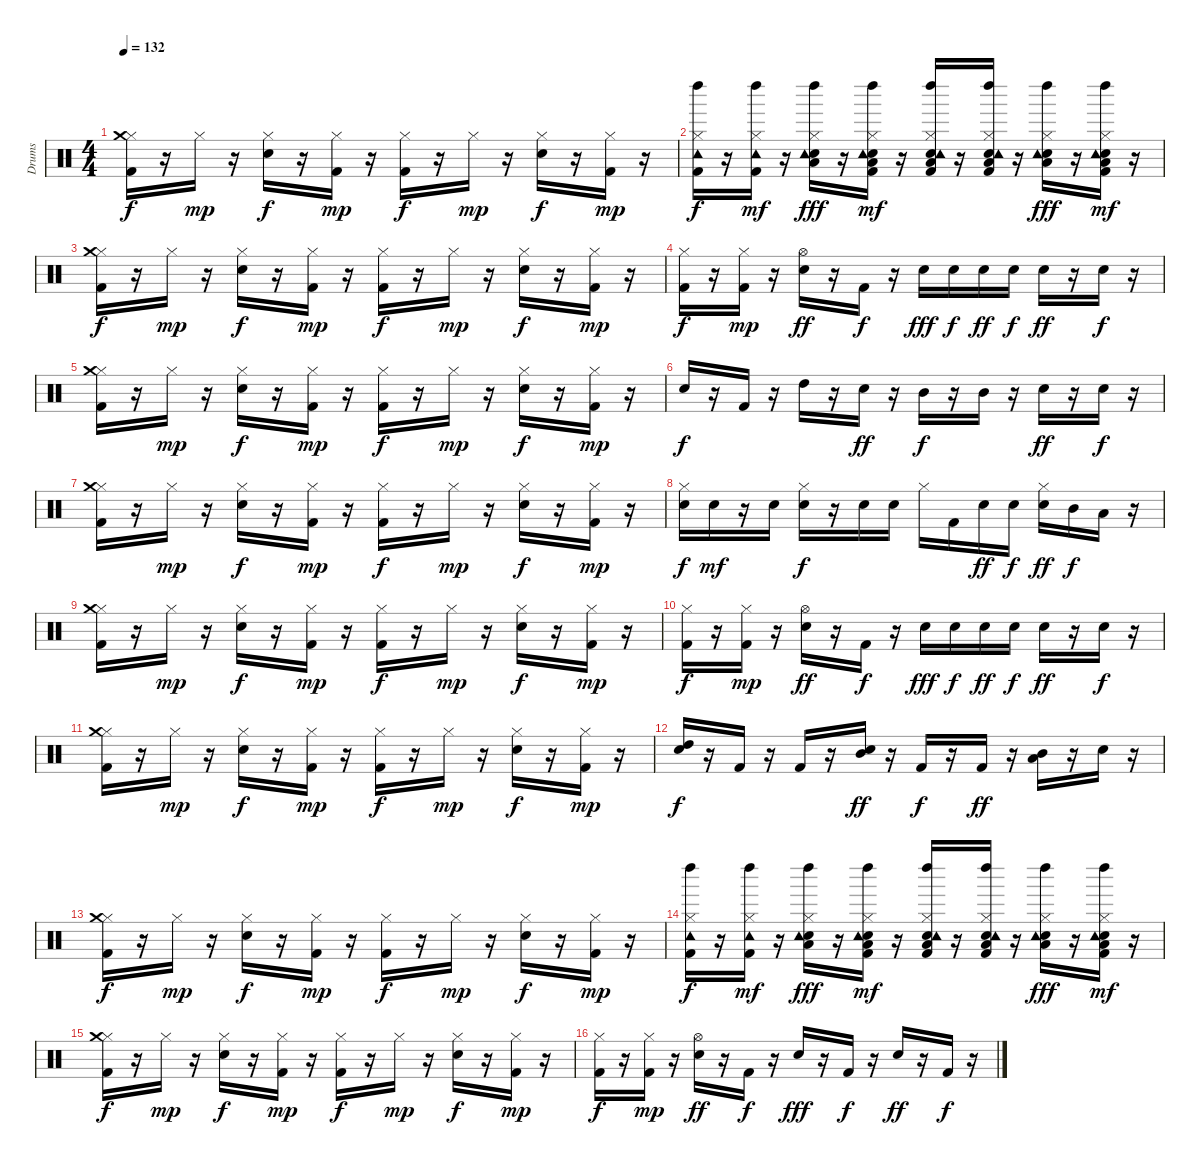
\track ("Drums" "Drums") {instrument percussion}
\staff {score}
\articulation defaults
\ts (4 4)
\tempo 132
\clef neutral
\ks c
("Kick (hit) 2" "Hi-Hat (closed)" "Crash medium (hit)").16{dy f} r.16 "Hi-Hat (closed)".16{dy mp} r.16 ("Snare (hit) 2" "Hi-Hat (closed)").16{dy f} r.16 ("Kick (hit) 2" "Hi-Hat (closed)").16{dy mp} r.16 ("Kick (hit) 2" "Hi-Hat (closed)").16{dy f} r.16 "Hi-Hat (closed)".16{dy mp} r.16 ("Snare (hit) 2" "Hi-Hat (closed)").16{dy f} r.16 ("Kick (hit) 2" "Hi-Hat (closed)").16{dy mp} r.16 |
("Kick (hit) 2" "Hi-Hat (closed)" "Tambourine (hit)" "Left Maraca (hit)").16{dy f} r.16 ("Kick (hit) 2" "Hi-Hat (closed)" "Tambourine (hit)" "Left Maraca (hit)").16{dy mf} r.16 ("Snare (hit) 2" "Hi-Hat (closed)" "Low Floor Tom (hit)" "Tambourine (hit)" "Left Maraca (hit)").16{dy fff} r.16 ("Kick (hit) 2" "Snare (hit) 2" "Hi-Hat (closed)" "Low Floor Tom (hit)" "Tambourine (hit)" "Left Maraca (hit)").16{dy mf} r.16 ("Kick (hit) 2" "Snare (hit) 2" "Hi-Hat (closed)" "Low Floor Tom (hit)" "Tambourine (hit)" "Left Maraca (hit)").16 r.16 ("Kick (hit) 2" "Snare (hit) 2" "Hi-Hat (closed)" "Low Floor Tom (hit)" "Tambourine (hit)" "Left Maraca (hit)").16 r.16 ("Snare (hit) 2" "Hi-Hat (closed)" "Low Floor Tom (hit)" "Tambourine (hit)" "Left Maraca (hit)").16{dy fff} r.16 ("Kick (hit) 2" "Snare (hit) 2" "Hi-Hat (closed)" "Low Floor Tom (hit)" "Tambourine (hit)" "Left Maraca (hit)").16{dy mf} r.16 |
("Kick (hit) 2" "Hi-Hat (closed)" "Crash medium (hit)").16{dy f} r.16 "Hi-Hat (closed)".16{dy mp} r.16 ("Snare (hit) 2" "Hi-Hat (closed)").16{dy f} r.16 ("Kick (hit) 2" "Hi-Hat (closed)").16{dy mp} r.16 ("Kick (hit) 2" "Hi-Hat (closed)").16{dy f} r.16 "Hi-Hat (closed)".16{dy mp} r.16 ("Snare (hit) 2" "Hi-Hat (closed)").16{dy f} r.16 ("Kick (hit) 2" "Hi-Hat (closed)").16{dy mp} r.16 |
("Kick (hit) 2" "Hi-Hat (closed)").16{dy f} r.16 ("Kick (hit) 2" "Hi-Hat (closed)").16{dy mp} r.16 ("Snare (hit) 2" "Hi-Hat (open)").16{dy ff} r.16 "Kick (hit) 2".16{dy f} r.16 "Snare (hit) 2".16{dy fff} "Snare (hit) 2".16{dy f} "Snare (hit) 2".16{dy ff} "Snare (hit) 2".16{dy f} "Snare (hit) 2".16{dy ff} r.16 "Snare (hit) 2".16{dy f} r.16 |
("Kick (hit) 2" "Hi-Hat (closed)" "Crash medium (hit)").16 r.16 "Hi-Hat (closed)".16{dy mp} r.16 ("Snare (hit) 2" "Hi-Hat (closed)").16{dy f} r.16 ("Kick (hit) 2" "Hi-Hat (closed)").16{dy mp} r.16 ("Kick (hit) 2" "Hi-Hat (closed)").16{dy f} r.16 "Hi-Hat (closed)".16{dy mp} r.16 ("Snare (hit) 2" "Hi-Hat (closed)").16{dy f} r.16 ("Kick (hit) 2" "Hi-Hat (closed)").16{dy mp} r.16 |
"Snare (hit) 2".16{dy f} r.16 "Kick (hit) 2".16 r.16 "High Tom (hit)".16 r.16 "Snare (hit) 2".16{dy ff} r.16 "Mid Tom (hit)".16{dy f} r.16 "Mid Tom (hit)".16 r.16 "Snare (hit) 2".16{dy ff} r.16 "Snare (hit) 2".16{dy f} r.16 |
("Kick (hit) 2" "Hi-Hat (closed)" "Crash medium (hit)").16 r.16 "Hi-Hat (closed)".16{dy mp} r.16 ("Snare (hit) 2" "Hi-Hat (closed)").16{dy f} r.16 ("Kick (hit) 2" "Hi-Hat (closed)").16{dy mp} r.16 ("Kick (hit) 2" "Hi-Hat (closed)").16{dy f} r.16 "Hi-Hat (closed)".16{dy mp} r.16 ("Snare (hit) 2" "Hi-Hat (closed)").16{dy f} r.16 ("Kick (hit) 2" "Hi-Hat (closed)").16{dy mp} r.16 |
("Snare (hit) 2" "Hi-Hat (closed)").16{dy f} "Snare (hit) 2".16{dy mf} r.16 "Snare (hit) 2".16 ("Snare (hit) 2" "Hi-Hat (closed)").16{dy f} r.16 "Snare (hit) 2".16 "Snare (hit) 2".16 "Hi-Hat (closed)".16 "Kick (hit) 2".16 "Snare (hit) 2".16{dy ff} "Snare (hit) 2".16{dy f} ("Snare (hit) 2" "Hi-Hat (closed)").16{dy ff} "Mid Tom (hit)".16{dy f} "Low Floor Tom (hit)".16 r.16 |
("Kick (hit) 2" "Hi-Hat (closed)" "Crash medium (hit)").16 r.16 "Hi-Hat (closed)".16{dy mp} r.16 ("Snare (hit) 2" "Hi-Hat (closed)").16{dy f} r.16 ("Kick (hit) 2" "Hi-Hat (closed)").16{dy mp} r.16 ("Kick (hit) 2" "Hi-Hat (closed)").16{dy f} r.16 "Hi-Hat (closed)".16{dy mp} r.16 ("Snare (hit) 2" "Hi-Hat (closed)").16{dy f} r.16 ("Kick (hit) 2" "Hi-Hat (closed)").16{dy mp} r.16 |
("Kick (hit) 2" "Hi-Hat (closed)").16{dy f} r.16 ("Kick (hit) 2" "Hi-Hat (closed)").16{dy mp} r.16 ("Snare (hit) 2" "Hi-Hat (open)").16{dy ff} r.16 "Kick (hit) 2".16{dy f} r.16 "Snare (hit) 2".16{dy fff} "Snare (hit) 2".16{dy f} "Snare (hit) 2".16{dy ff} "Snare (hit) 2".16{dy f} "Snare (hit) 2".16{dy ff} r.16 "Snare (hit) 2".16{dy f} r.16 |
("Kick (hit) 2" "Hi-Hat (closed)" "Crash medium (hit)").16 r.16 "Hi-Hat (closed)".16{dy mp} r.16 ("Snare (hit) 2" "Hi-Hat (closed)").16{dy f} r.16 ("Kick (hit) 2" "Hi-Hat (closed)").16{dy mp} r.16 ("Kick (hit) 2" "Hi-Hat (closed)").16{dy f} r.16 "Hi-Hat (closed)".16{dy mp} r.16 ("Snare (hit) 2" "Hi-Hat (closed)").16{dy f} r.16 ("Kick (hit) 2" "Hi-Hat (closed)").16{dy mp} r.16 |
("Snare (hit) 2" "High Tom (hit)").16{dy f} r.16 "Kick (hit) 2".16 r.16 "Kick (hit) 2".16 r.16 ("Snare (hit) 2" "Mid Tom (hit)").16{dy ff} r.16 "Kick (hit) 2".16{dy f} r.16 "Kick (hit) 2".16{dy ff} r.16 ("Low Floor Tom (hit)" "Mid Tom (hit)").16 r.16 "Snare (hit) 2".16 r.16 |
("Kick (hit) 2" "Hi-Hat (closed)" "Crash medium (hit)").16{dy f} r.16 "Hi-Hat (closed)".16{dy mp} r.16 ("Snare (hit) 2" "Hi-Hat (closed)").16{dy f} r.16 ("Kick (hit) 2" "Hi-Hat (closed)").16{dy mp} r.16 ("Kick (hit) 2" "Hi-Hat (closed)").16{dy f} r.16 "Hi-Hat (closed)".16{dy mp} r.16 ("Snare (hit) 2" "Hi-Hat (closed)").16{dy f} r.16 ("Kick (hit) 2" "Hi-Hat (closed)").16{dy mp} r.16 |
("Kick (hit) 2" "Hi-Hat (closed)" "Tambourine (hit)" "Left Maraca (hit)").16{dy f} r.16 ("Kick (hit) 2" "Hi-Hat (closed)" "Tambourine (hit)" "Left Maraca (hit)").16{dy mf} r.16 ("Snare (hit) 2" "Hi-Hat (closed)" "Low Floor Tom (hit)" "Tambourine (hit)" "Left Maraca (hit)").16{dy fff} r.16 ("Kick (hit) 2" "Snare (hit) 2" "Hi-Hat (closed)" "Low Floor Tom (hit)" "Tambourine (hit)" "Left Maraca (hit)").16{dy mf} r.16 ("Kick (hit) 2" "Snare (hit) 2" "Hi-Hat (closed)" "Low Floor Tom (hit)" "Tambourine (hit)" "Left Maraca (hit)").16 r.16 ("Kick (hit) 2" "Snare (hit) 2" "Hi-Hat (closed)" "Low Floor Tom (hit)" "Tambourine (hit)" "Left Maraca (hit)").16 r.16 ("Snare (hit) 2" "Hi-Hat (closed)" "Low Floor Tom (hit)" "Tambourine (hit)" "Left Maraca (hit)").16{dy fff} r.16 ("Kick (hit) 2" "Snare (hit) 2" "Hi-Hat (closed)" "Low Floor Tom (hit)" "Tambourine (hit)" "Left Maraca (hit)").16{dy mf} r.16 |
("Kick (hit) 2" "Hi-Hat (closed)" "Crash medium (hit)").16{dy f} r.16 "Hi-Hat (closed)".16{dy mp} r.16 ("Snare (hit) 2" "Hi-Hat (closed)").16{dy f} r.16 ("Kick (hit) 2" "Hi-Hat (closed)").16{dy mp} r.16 ("Kick (hit) 2" "Hi-Hat (closed)").16{dy f} r.16 "Hi-Hat (closed)".16{dy mp} r.16 ("Snare (hit) 2" "Hi-Hat (closed)").16{dy f} r.16 ("Kick (hit) 2" "Hi-Hat (closed)").16{dy mp} r.16 |
("Kick (hit) 2" "Hi-Hat (closed)").16{dy f} r.16 ("Kick (hit) 2" "Hi-Hat (closed)").16{dy mp} r.16 ("Snare (hit) 2" "Hi-Hat (open)").16{dy ff} r.16 "Kick (hit) 2".16{dy f} r.16 "Snare (hit) 2".16{dy fff} r.16 "Kick (hit) 2".16{dy f} r.16 "Snare (hit) 2".16{dy ff} r.16 "Kick (hit) 2".16{dy f} r.16
